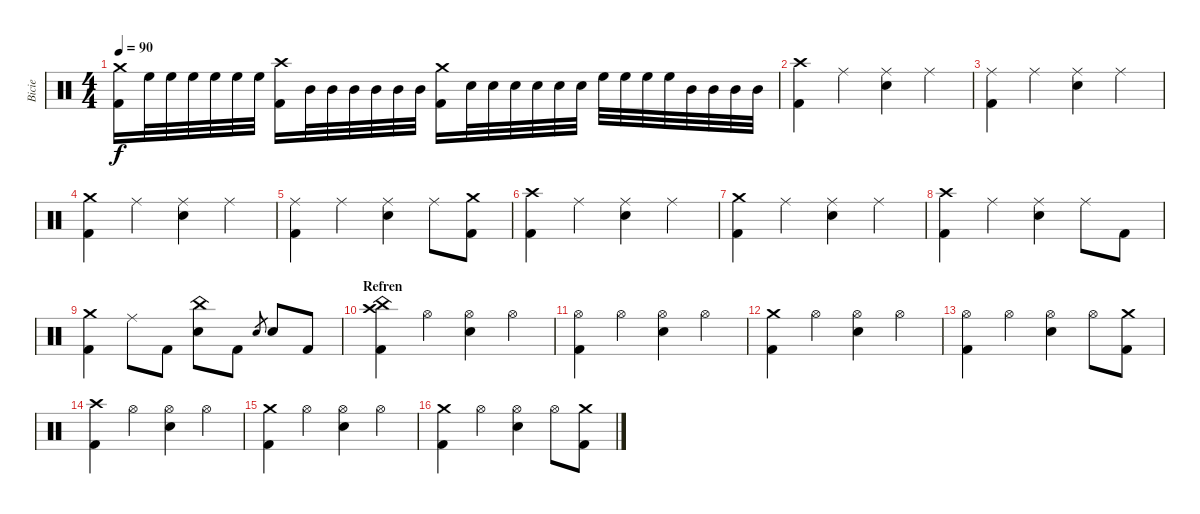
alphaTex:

\track ("Bicie" "Bicie") {instrument percussion}
\staff {score}
\articulation defaults
\ts (4 4)
\tempo 90
\clef neutral
\ks c
("Crash medium (hit)" "Kick (hit) 2").16{dy f} "High Floor Tom (hit)".32 "High Floor Tom (hit)".32 "High Floor Tom (hit)".32 "High Floor Tom (hit)".32 "High Floor Tom (hit)".32 "High Floor Tom (hit)".32 ("Crash high (hit)" "Kick (hit) 2").16 "Mid Tom (hit)".32 "Mid Tom (hit)".32 "Mid Tom (hit)".32 "Mid Tom (hit)".32 "Mid Tom (hit)".32 "Mid Tom (hit)".32 ("Crash medium (hit)" "Kick (hit) 2").16 "Electric Snare (hit)".32 "Electric Snare (hit)".32 "Electric Snare (hit)".32 "Electric Snare (hit)".32 "Electric Snare (hit)".32 "Electric Snare (hit)".32 "High Floor Tom (hit)".32 "High Floor Tom (hit)".32 "High Floor Tom (hit)".32 "High Floor Tom (hit)".32 "Mid Tom (hit)".32 "Mid Tom (hit)".32 "Mid Tom (hit)".32 "Mid Tom (hit)".32 |
("Crash high (hit)" "Kick (hit) 2").4 "Ride (middle)".4 ("Ride (middle)" "Electric Snare (hit)").4 "Ride (middle)".4 |
("Ride (middle)" "Kick (hit) 2").4 "Ride (middle)".4 ("Ride (middle)" "Electric Snare (hit)").4 "Ride (middle)".4 |
("Crash medium (hit)" "Kick (hit) 2").4 "Ride (middle)".4 ("Ride (middle)" "Electric Snare (hit)").4 "Ride (middle)".4 |
("Ride (middle)" "Kick (hit) 2").4 "Ride (middle)".4 ("Ride (middle)" "Electric Snare (hit)").4 "Ride (middle)".8 ("Crash medium (hit)" "Kick (hit) 2").8 |
("Crash high (hit)" "Kick (hit) 2").4 "Ride (middle)".4 ("Ride (middle)" "Electric Snare (hit)").4 "Ride (middle)".4 |
("Crash medium (hit)" "Kick (hit) 2").4 "Ride (middle)".4 ("Ride (middle)" "Electric Snare (hit)").4 "Ride (middle)".4 |
("Crash high (hit)" "Kick (hit) 2").4 "Ride (middle)".4 ("Ride (middle)" "Electric Snare (hit)").4 "Ride (middle)".8 "Kick (hit) 2".8 |
("Crash medium (hit)" "Kick (hit) 2").4 "Ride (middle)".8 "Kick (hit) 2".8 ("China (hit)" "Electric Snare (hit)").8 "Kick (hit) 2".8 "Electric Snare (hit)".8{gr} "Electric Snare (hit)".8 "Kick (hit) 2".8 |
\section ("" "Refren")
("Crash high (hit)" "China (hit)" "Kick (hit) 2").4 "Hi-Hat (open)".4 ("Hi-Hat (open)" "Electric Snare (hit)").4 "Hi-Hat (open)".4 |
("Hi-Hat (open)" "Kick (hit) 2").4 "Hi-Hat (open)".4 ("Hi-Hat (open)" "Electric Snare (hit)").4 "Hi-Hat (open)".4 |
("Crash medium (hit)" "Kick (hit) 2").4 "Hi-Hat (open)".4 ("Hi-Hat (open)" "Electric Snare (hit)").4 "Hi-Hat (open)".4 |
("Hi-Hat (open)" "Kick (hit) 2").4 "Hi-Hat (open)".4 ("Hi-Hat (open)" "Electric Snare (hit)").4 "Hi-Hat (open)".8 ("Crash medium (hit)" "Kick (hit) 2").8 |
("Crash high (hit)" "Kick (hit) 2").4 "Hi-Hat (open)".4 ("Hi-Hat (open)" "Electric Snare (hit)").4 "Hi-Hat (open)".4 |
("Crash medium (hit)" "Kick (hit) 2").4 "Hi-Hat (open)".4 ("Hi-Hat (open)" "Electric Snare (hit)").4 "Hi-Hat (open)".4 |
("Crash medium (hit)" "Kick (hit) 2").4 "Hi-Hat (open)".4 ("Hi-Hat (open)" "Electric Snare (hit)").4 "Hi-Hat (open)".8 ("Crash medium (hit)" "Kick (hit) 2").8
